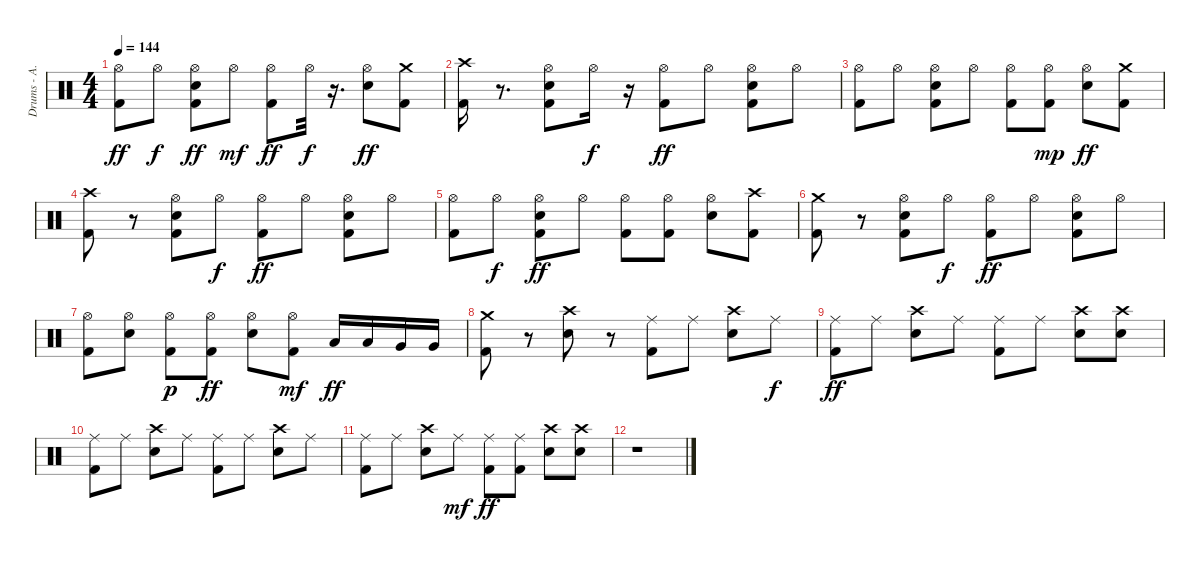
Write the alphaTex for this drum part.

\track ("Drums - A. Van Halen" "Drums - A.") {instrument percussion}
\staff {score}
\articulation defaults
\ts (4 4)
\tempo 144
\clef neutral
\ks c
("Kick (hit) 2" "Hi-Hat (open)").8{dy ff} "Hi-Hat (open)".8{dy f} ("Kick (hit) 2" "Electric Snare (hit)" "Hi-Hat (open)").8{dy ff} "Hi-Hat (open)".8{dy mf} ("Hi-Hat (open)" "Kick (hit) 2").8{dy ff} "Hi-Hat (open)".32{dy f} r.16{d} ("Electric Snare (hit)" "Hi-Hat (open)").8{dy ff} ("Crash medium (hit)" "Kick (hit) 2").8 |
("Kick (hit) 2" "Crash high (hit)").16 r.8{d} ("Electric Snare (hit)" "Hi-Hat (open)" "Kick (hit) 2").8 "Hi-Hat (open)".16{dy f} r.16 ("Kick (hit) 2" "Hi-Hat (open)").8{dy ff} "Hi-Hat (open)".8 ("Electric Snare (hit)" "Hi-Hat (open)" "Kick (hit) 2").8 "Hi-Hat (open)".8 |
("Hi-Hat (open)" "Kick (hit) 2").8 "Hi-Hat (open)".8 ("Hi-Hat (open)" "Kick (hit) 2" "Electric Snare (hit)").8 "Hi-Hat (open)".8 ("Hi-Hat (open)" "Kick (hit) 2").8 ("Kick (hit) 2" "Hi-Hat (open)").8{dy mp} ("Hi-Hat (open)" "Electric Snare (hit)").8{dy ff} ("Crash medium (hit)" "Kick (hit) 2").8 |
("Crash high (hit)" "Kick (hit) 2").8 r.8 ("Hi-Hat (open)" "Electric Snare (hit)" "Kick (hit) 2").8 "Hi-Hat (open)".8{dy f} ("Kick (hit) 2" "Hi-Hat (open)").8{dy ff} "Hi-Hat (open)".8 ("Kick (hit) 2" "Hi-Hat (open)" "Electric Snare (hit)").8 "Hi-Hat (open)".8 |
("Kick (hit) 2" "Hi-Hat (open)").8 "Hi-Hat (open)".8{dy f} ("Kick (hit) 2" "Hi-Hat (open)" "Electric Snare (hit)").8{dy ff} "Hi-Hat (open)".8 ("Hi-Hat (open)" "Kick (hit) 2").8 ("Kick (hit) 2" "Hi-Hat (open)").8 ("Electric Snare (hit)" "Hi-Hat (open)").8 ("Crash high (hit)" "Kick (hit) 2").8 |
("Crash medium (hit)" "Kick (hit) 2").8 r.8 ("Kick (hit) 2" "Hi-Hat (open)" "Electric Snare (hit)").8 "Hi-Hat (open)".8{dy f} ("Kick (hit) 2" "Hi-Hat (open)").8{dy ff} "Hi-Hat (open)".8 ("Kick (hit) 2" "Electric Snare (hit)" "Hi-Hat (open)").8 "Hi-Hat (open)".8 |
("Hi-Hat (open)" "Kick (hit) 2").8 ("Hi-Hat (open)" "Electric Snare (hit)").8 ("Kick (hit) 2" "Hi-Hat (open)").8{dy p} ("Hi-Hat (open)" "Kick (hit) 2").8{dy ff} ("Hi-Hat (open)" "Electric Snare (hit)").8 ("Kick (hit) 2" "Hi-Hat (open)").8{dy mf} "Low Tom (hit)".16{dy ff} "Low Tom (hit)".16 "Very Low Tom (hit)".16 "Very Low Tom (hit)".16 |
("Kick (hit) 2" "Crash medium (hit)").8 r.8 ("Electric Snare (hit)" "Crash high (hit)").8 r.8 ("Ride (middle)" "Kick (hit) 2").8 "Ride (middle)".8 ("Crash high (hit)" "Electric Snare (hit)").8 "Ride (middle)".8{dy f} |
("Ride (middle)" "Kick (hit) 2").8{dy ff} "Ride (middle)".8 ("Electric Snare (hit)" "Crash high (hit)").8 "Ride (middle)".8 ("Ride (middle)" "Kick (hit) 2").8 "Ride (middle)".8 ("Electric Snare (hit)" "Crash high (hit)").8 ("Electric Snare (hit)" "Crash high (hit)").8 |
("Ride (middle)" "Kick (hit) 2").8 "Ride (middle)".8 ("Crash high (hit)" "Electric Snare (hit)").8 "Ride (middle)".8 ("Kick (hit) 2" "Ride (middle)").8 "Ride (middle)".8 ("Electric Snare (hit)" "Crash high (hit)").8 "Ride (middle)".8 |
("Ride (middle)" "Kick (hit) 2").8 "Ride (middle)".8 ("Electric Snare (hit)" "Crash high (hit)").8 "Ride (middle)".8{dy mf} ("Ride (middle)" "Kick (hit) 2").8{dy ff} ("Kick (hit) 2" "Ride (middle)").8 ("Crash high (hit)" "Electric Snare (hit)").8 ("Electric Snare (hit)" "Crash high (hit)").8 |
r.1
